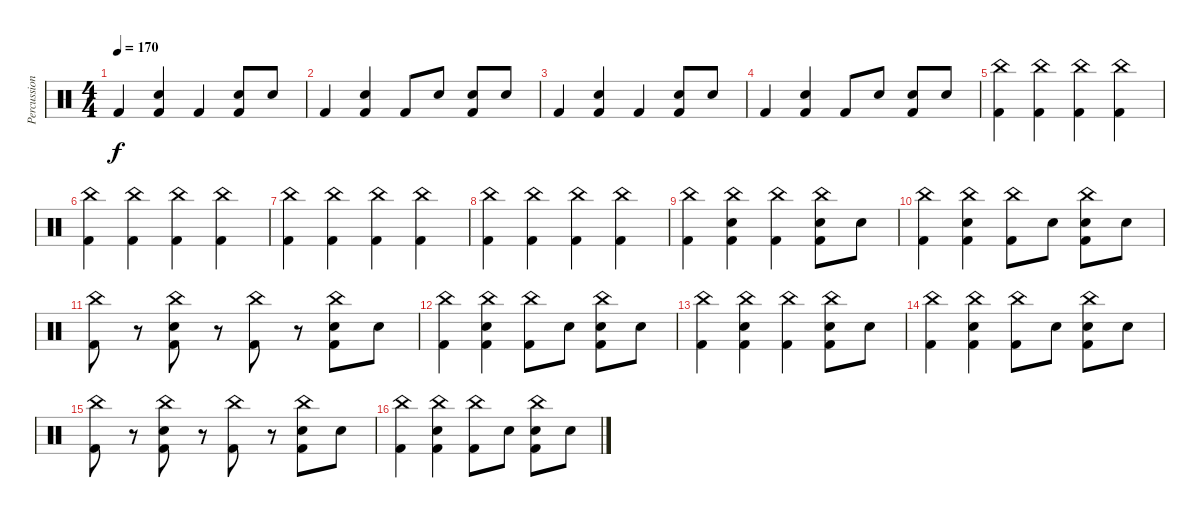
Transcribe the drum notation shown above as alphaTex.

\track ("Percussion" "Percussion") {instrument percussion}
\staff {score}
\articulation defaults
\ts (4 4)
\tempo 170
\clef neutral
\ks c "Kick (hit) 2".4{dy f}
("Electric Snare (hit)" "Kick (hit) 2").4 "Kick (hit) 2".4 ("Electric Snare (hit)" "Kick (hit) 2").8 "Electric Snare (hit)".8 |
"Kick (hit) 2".4 ("Electric Snare (hit)" "Kick (hit) 2").4 "Kick (hit) 2".8 "Electric Snare (hit)".8 ("Electric Snare (hit)" "Kick (hit) 2").8 "Electric Snare (hit)".8 |
"Kick (hit) 2".4 ("Electric Snare (hit)" "Kick (hit) 2").4 "Kick (hit) 2".4 ("Electric Snare (hit)" "Kick (hit) 2").8 "Electric Snare (hit)".8 |
"Kick (hit) 2".4 ("Electric Snare (hit)" "Kick (hit) 2").4 "Kick (hit) 2".8 "Electric Snare (hit)".8 ("Electric Snare (hit)" "Kick (hit) 2").8 "Electric Snare (hit)".8 |
("China (hit)" "Kick (hit) 2").4 ("China (hit)" "Kick (hit) 2").4 ("China (hit)" "Kick (hit) 2").4 ("China (hit)" "Kick (hit) 2").4 |
("China (hit)" "Kick (hit) 2").4 ("China (hit)" "Kick (hit) 2").4 ("China (hit)" "Kick (hit) 2").4 ("China (hit)" "Kick (hit) 2").4 |
("China (hit)" "Kick (hit) 2").4 ("China (hit)" "Kick (hit) 2").4 ("China (hit)" "Kick (hit) 2").4 ("China (hit)" "Kick (hit) 2").4 |
("China (hit)" "Kick (hit) 2").4 ("China (hit)" "Kick (hit) 2").4 ("China (hit)" "Kick (hit) 2").4 ("China (hit)" "Kick (hit) 2").4 |
("China (hit)" "Kick (hit) 2").4 ("China (hit)" "Electric Snare (hit)" "Kick (hit) 2").4 ("China (hit)" "Kick (hit) 2").4 ("China (hit)" "Electric Snare (hit)" "Kick (hit) 2").8 "Electric Snare (hit)".8 |
("China (hit)" "Kick (hit) 2").4 ("China (hit)" "Electric Snare (hit)" "Kick (hit) 2").4 ("China (hit)" "Kick (hit) 2").8 "Electric Snare (hit)".8 ("China (hit)" "Electric Snare (hit)" "Kick (hit) 2").8 "Electric Snare (hit)".8 |
("China (hit)" "Kick (hit) 2").8 r.8 ("China (hit)" "Electric Snare (hit)" "Kick (hit) 2").8 r.8 ("China (hit)" "Kick (hit) 2").8 r.8 ("China (hit)" "Electric Snare (hit)" "Kick (hit) 2").8 "Electric Snare (hit)".8 |
("China (hit)" "Kick (hit) 2").4 ("China (hit)" "Electric Snare (hit)" "Kick (hit) 2").4 ("China (hit)" "Kick (hit) 2").8 "Electric Snare (hit)".8 ("China (hit)" "Electric Snare (hit)" "Kick (hit) 2").8 "Electric Snare (hit)".8 |
("China (hit)" "Kick (hit) 2").4 ("China (hit)" "Electric Snare (hit)" "Kick (hit) 2").4 ("China (hit)" "Kick (hit) 2").4 ("China (hit)" "Electric Snare (hit)" "Kick (hit) 2").8 "Electric Snare (hit)".8 |
("China (hit)" "Kick (hit) 2").4 ("China (hit)" "Electric Snare (hit)" "Kick (hit) 2").4 ("China (hit)" "Kick (hit) 2").8 "Electric Snare (hit)".8 ("China (hit)" "Electric Snare (hit)" "Kick (hit) 2").8 "Electric Snare (hit)".8 |
("China (hit)" "Kick (hit) 2").8 r.8 ("China (hit)" "Electric Snare (hit)" "Kick (hit) 2").8 r.8 ("China (hit)" "Kick (hit) 2").8 r.8 ("China (hit)" "Electric Snare (hit)" "Kick (hit) 2").8 "Electric Snare (hit)".8 |
("China (hit)" "Kick (hit) 2").4 ("China (hit)" "Electric Snare (hit)" "Kick (hit) 2").4 ("China (hit)" "Kick (hit) 2").8 "Electric Snare (hit)".8 ("China (hit)" "Electric Snare (hit)" "Kick (hit) 2").8 "Electric Snare (hit)".8
